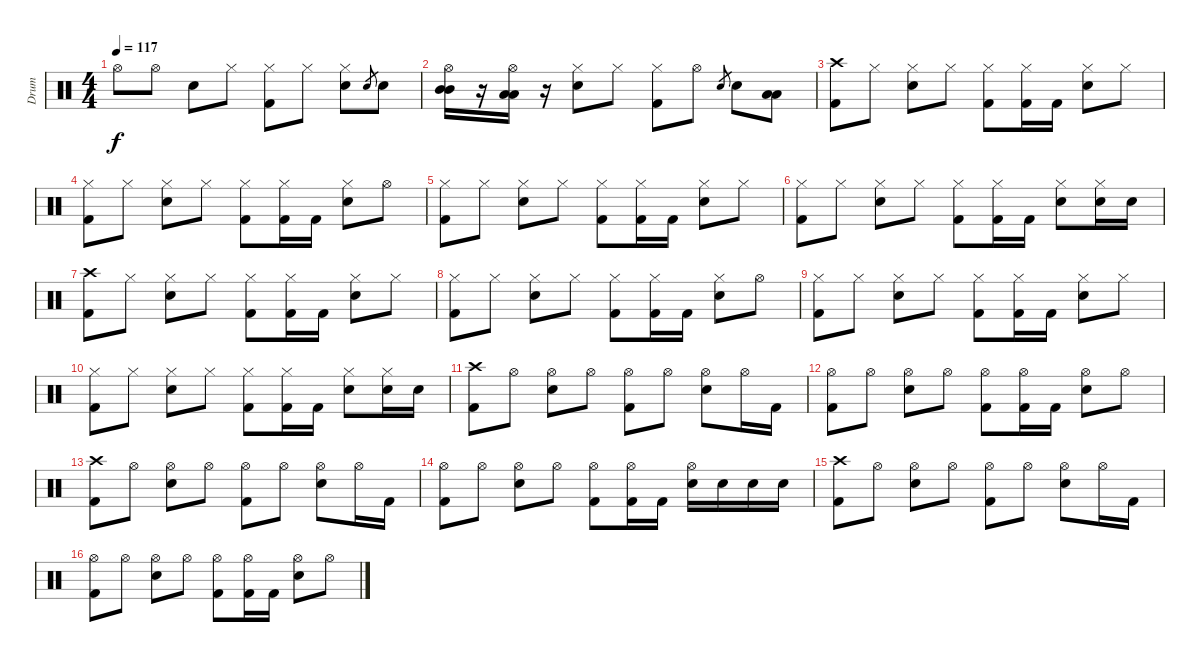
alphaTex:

\track ("Drum" "Drum") {instrument percussion}
\staff {score}
\articulation defaults
\ts (4 4)
\tempo 117
\clef neutral
\ks c "Hi-Hat (open)".8{dy f} "Hi-Hat (open)".8 "Electric Snare (hit)".8 "Hi-Hat (closed)".8
("Hi-Hat (closed)" "Kick (hit) 2").8 "Hi-Hat (closed)".8 ("Hi-Hat (closed)" "Electric Snare (hit)").8 "Electric Snare (hit)".8{gr} "Electric Snare (hit)".8 |
("Hi-Hat (open)" "Mid Tom (hit)" "Mid Tom (hit)").16 r.16 ("Hi-Hat (open)" "Low Tom (hit)" "Low Tom (hit)").16 r.16 ("Hi-Hat (closed)" "Electric Snare (hit)").8 "Hi-Hat (closed)".8 ("Hi-Hat (closed)" "Kick (hit) 2").8 "Hi-Hat (open)".8 "Electric Snare (hit)".8{gr} "Electric Snare (hit)".8 ("Low Tom (hit)" "Low Tom (hit)").8 |
("Crash high (hit)" "Kick (hit) 2").8 "Hi-Hat (closed)".8 ("Hi-Hat (closed)" "Electric Snare (hit)").8 "Hi-Hat (closed)".8 ("Hi-Hat (closed)" "Kick (hit) 2").8 ("Hi-Hat (closed)" "Kick (hit) 2").16 "Kick (hit) 2".16 ("Hi-Hat (closed)" "Electric Snare (hit)").8 "Hi-Hat (closed)".8 |
("Hi-Hat (closed)" "Kick (hit) 2").8 "Hi-Hat (closed)".8 ("Hi-Hat (closed)" "Electric Snare (hit)").8 "Hi-Hat (closed)".8 ("Hi-Hat (closed)" "Kick (hit) 2").8 ("Hi-Hat (closed)" "Kick (hit) 2").16 "Kick (hit) 2".16 ("Hi-Hat (closed)" "Electric Snare (hit)").8 "Hi-Hat (open)".8 |
("Hi-Hat (closed)" "Kick (hit) 2").8 "Hi-Hat (closed)".8 ("Hi-Hat (closed)" "Electric Snare (hit)").8 "Hi-Hat (closed)".8 ("Hi-Hat (closed)" "Kick (hit) 2").8 ("Hi-Hat (closed)" "Kick (hit) 2").16 "Kick (hit) 2".16 ("Hi-Hat (closed)" "Electric Snare (hit)").8 "Hi-Hat (closed)".8 |
("Hi-Hat (closed)" "Kick (hit) 2").8 "Hi-Hat (closed)".8 ("Hi-Hat (closed)" "Electric Snare (hit)").8 "Hi-Hat (closed)".8 ("Hi-Hat (closed)" "Kick (hit) 2").8 ("Hi-Hat (closed)" "Kick (hit) 2").16 "Kick (hit) 2".16 ("Hi-Hat (closed)" "Electric Snare (hit)").8 ("Hi-Hat (closed)" "Electric Snare (hit)").16 "Electric Snare (hit)".16 |
("Crash high (hit)" "Kick (hit) 2").8 "Hi-Hat (closed)".8 ("Hi-Hat (closed)" "Electric Snare (hit)").8 "Hi-Hat (closed)".8 ("Hi-Hat (closed)" "Kick (hit) 2").8 ("Hi-Hat (closed)" "Kick (hit) 2").16 "Kick (hit) 2".16 ("Hi-Hat (closed)" "Electric Snare (hit)").8 "Hi-Hat (closed)".8 |
("Hi-Hat (closed)" "Kick (hit) 2").8 "Hi-Hat (closed)".8 ("Hi-Hat (closed)" "Electric Snare (hit)").8 "Hi-Hat (closed)".8 ("Hi-Hat (closed)" "Kick (hit) 2").8 ("Hi-Hat (closed)" "Kick (hit) 2").16 "Kick (hit) 2".16 ("Hi-Hat (closed)" "Electric Snare (hit)").8 "Hi-Hat (open)".8 |
("Hi-Hat (closed)" "Kick (hit) 2").8 "Hi-Hat (closed)".8 ("Hi-Hat (closed)" "Electric Snare (hit)").8 "Hi-Hat (closed)".8 ("Hi-Hat (closed)" "Kick (hit) 2").8 ("Hi-Hat (closed)" "Kick (hit) 2").16 "Kick (hit) 2".16 ("Hi-Hat (closed)" "Electric Snare (hit)").8 "Hi-Hat (closed)".8 |
("Hi-Hat (closed)" "Kick (hit) 2").8 "Hi-Hat (closed)".8 ("Hi-Hat (closed)" "Electric Snare (hit)").8 "Hi-Hat (closed)".8 ("Hi-Hat (closed)" "Kick (hit) 2").8 ("Hi-Hat (closed)" "Kick (hit) 2").16 "Kick (hit) 2".16 ("Hi-Hat (closed)" "Electric Snare (hit)").8 ("Hi-Hat (closed)" "Electric Snare (hit)").16 "Electric Snare (hit)".16 |
("Crash high (hit)" "Kick (hit) 2").8 "Hi-Hat (open)".8 ("Hi-Hat (open)" "Electric Snare (hit)").8 "Hi-Hat (open)".8 ("Hi-Hat (open)" "Kick (hit) 2").8 "Hi-Hat (open)".8 ("Hi-Hat (open)" "Electric Snare (hit)").8 "Hi-Hat (open)".16 "Kick (hit) 2".16 |
("Hi-Hat (open)" "Kick (hit) 2").8 "Hi-Hat (open)".8 ("Hi-Hat (open)" "Electric Snare (hit)").8 "Hi-Hat (open)".8 ("Hi-Hat (open)" "Kick (hit) 2").8 ("Hi-Hat (open)" "Kick (hit) 2").16 "Kick (hit) 2".16 ("Hi-Hat (open)" "Electric Snare (hit)").8 "Hi-Hat (open)".8 |
("Crash high (hit)" "Kick (hit) 2").8 "Hi-Hat (open)".8 ("Hi-Hat (open)" "Electric Snare (hit)").8 "Hi-Hat (open)".8 ("Hi-Hat (open)" "Kick (hit) 2").8 "Hi-Hat (open)".8 ("Hi-Hat (open)" "Electric Snare (hit)").8 "Hi-Hat (open)".16 "Kick (hit) 2".16 |
("Hi-Hat (open)" "Kick (hit) 2").8 "Hi-Hat (open)".8 ("Hi-Hat (open)" "Electric Snare (hit)").8 "Hi-Hat (open)".8 ("Hi-Hat (open)" "Kick (hit) 2").8 ("Hi-Hat (open)" "Kick (hit) 2").16 "Kick (hit) 2".16 ("Hi-Hat (open)" "Electric Snare (hit)").16 "Electric Snare (hit)".16 "Electric Snare (hit)".16 "Electric Snare (hit)".16 |
("Crash high (hit)" "Kick (hit) 2").8 "Hi-Hat (open)".8 ("Hi-Hat (open)" "Electric Snare (hit)").8 "Hi-Hat (open)".8 ("Hi-Hat (open)" "Kick (hit) 2").8 "Hi-Hat (open)".8 ("Hi-Hat (open)" "Electric Snare (hit)").8 "Hi-Hat (open)".16 "Kick (hit) 2".16 |
("Hi-Hat (open)" "Kick (hit) 2").8 "Hi-Hat (open)".8 ("Hi-Hat (open)" "Electric Snare (hit)").8 "Hi-Hat (open)".8 ("Hi-Hat (open)" "Kick (hit) 2").8 ("Hi-Hat (open)" "Kick (hit) 2").16 "Kick (hit) 2".16 ("Hi-Hat (open)" "Electric Snare (hit)").8 "Hi-Hat (open)".8
